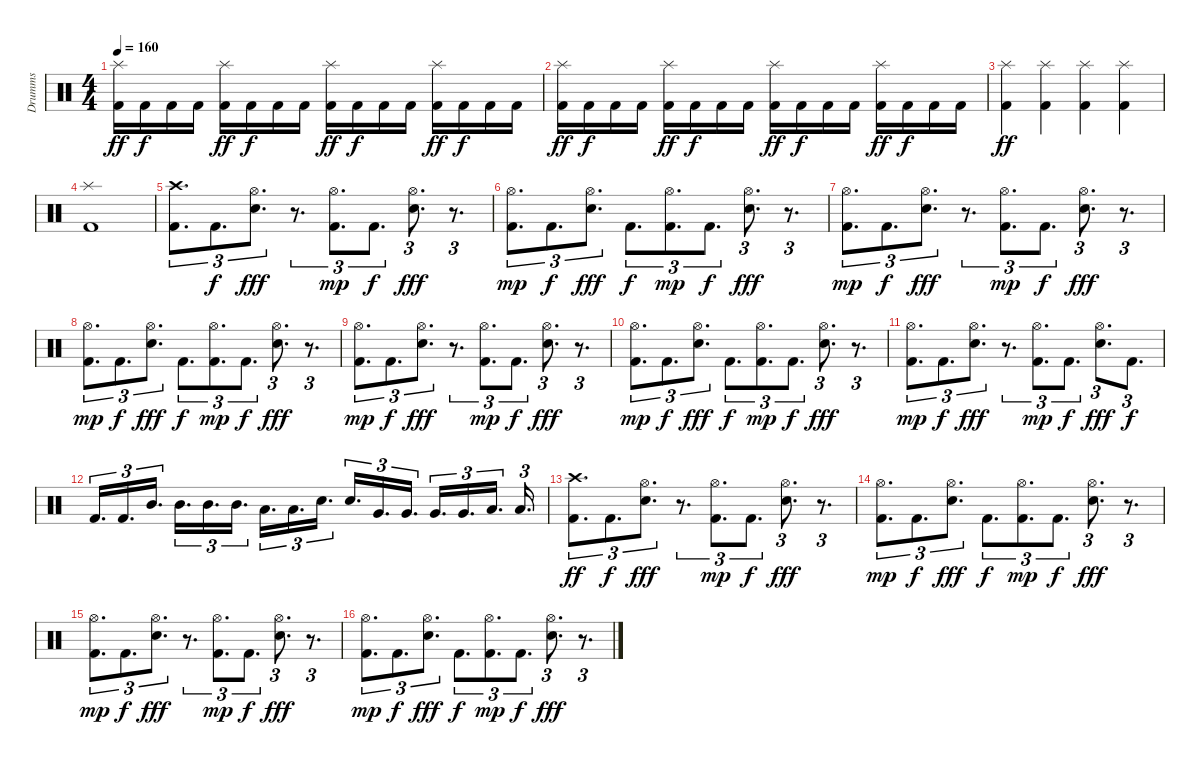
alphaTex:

\track ("Drumms" "Drumms") {instrument percussion}
\staff {score}
\articulation defaults
\ts (4 4)
\section ("" "")
\tempo 160
\clef neutral
\ks c
("Splash (hit)" "Kick (hit) 2").16{dy ff} "Kick (hit) 2".16{dy f} "Kick (hit) 2".16 "Kick (hit) 2".16 ("Splash (hit)" "Kick (hit) 2").16{dy ff} "Kick (hit) 2".16{dy f} "Kick (hit) 2".16 "Kick (hit) 2".16 ("Splash (hit)" "Kick (hit) 2").16{dy ff} "Kick (hit) 2".16{dy f} "Kick (hit) 2".16 "Kick (hit) 2".16 ("Splash (hit)" "Kick (hit) 2").16{dy ff} "Kick (hit) 2".16{dy f} "Kick (hit) 2".16 "Kick (hit) 2".16 |
("Splash (hit)" "Kick (hit) 2").16{dy ff} "Kick (hit) 2".16{dy f} "Kick (hit) 2".16 "Kick (hit) 2".16 ("Splash (hit)" "Kick (hit) 2").16{dy ff} "Kick (hit) 2".16{dy f} "Kick (hit) 2".16 "Kick (hit) 2".16 ("Splash (hit)" "Kick (hit) 2").16{dy ff} "Kick (hit) 2".16{dy f} "Kick (hit) 2".16 "Kick (hit) 2".16 ("Splash (hit)" "Kick (hit) 2").16{dy ff} "Kick (hit) 2".16{dy f} "Kick (hit) 2".16 "Kick (hit) 2".16 |
("Splash (hit)" "Kick (hit) 2").4{dy ff} ("Splash (hit)" "Kick (hit) 2").4 ("Splash (hit)" "Kick (hit) 2").4 ("Splash (hit)" "Kick (hit) 2").4 |
("Splash (hit)" "Kick (hit) 2").1 |
\section ("" "")
("Crash high (hit)" "Kick (hit) 2").8{d tu (3 2)} "Kick (hit) 2".8{d tu (3 2) dy f} ("Hi-Hat (open)" "Electric Snare (hit)").8{d tu (3 2) dy fff} r.8{d tu (3 2)} ("Hi-Hat (open)" "Kick (hit) 2").8{d tu (3 2) dy mp} "Kick (hit) 2".8{d tu (3 2) dy f} ("Hi-Hat (open)" "Electric Snare (hit)").8{d tu (3 2) dy fff} r.8{d tu (3 2)} |
("Hi-Hat (open)" "Kick (hit) 2").8{d tu (3 2) dy mp} "Kick (hit) 2".8{d tu (3 2) dy f} ("Hi-Hat (open)" "Electric Snare (hit)").8{d tu (3 2) dy fff} "Kick (hit) 2".8{d tu (3 2) dy f} ("Hi-Hat (open)" "Kick (hit) 2").8{d tu (3 2) dy mp} "Kick (hit) 2".8{d tu (3 2) dy f} ("Hi-Hat (open)" "Electric Snare (hit)").8{d tu (3 2) dy fff} r.8{d tu (3 2)} |
("Hi-Hat (open)" "Kick (hit) 2").8{d tu (3 2) dy mp} "Kick (hit) 2".8{d tu (3 2) dy f} ("Hi-Hat (open)" "Electric Snare (hit)").8{d tu (3 2) dy fff} r.8{d tu (3 2)} ("Hi-Hat (open)" "Kick (hit) 2").8{d tu (3 2) dy mp} "Kick (hit) 2".8{d tu (3 2) dy f} ("Hi-Hat (open)" "Electric Snare (hit)").8{d tu (3 2) dy fff} r.8{d tu (3 2)} |
("Hi-Hat (open)" "Kick (hit) 2").8{d tu (3 2) dy mp} "Kick (hit) 2".8{d tu (3 2) dy f} ("Hi-Hat (open)" "Electric Snare (hit)").8{d tu (3 2) dy fff} "Kick (hit) 2".8{d tu (3 2) dy f} ("Hi-Hat (open)" "Kick (hit) 2").8{d tu (3 2) dy mp} "Kick (hit) 2".8{d tu (3 2) dy f} ("Hi-Hat (open)" "Electric Snare (hit)").8{d tu (3 2) dy fff} r.8{d tu (3 2)} |
("Hi-Hat (open)" "Kick (hit) 2").8{d tu (3 2) dy mp} "Kick (hit) 2".8{d tu (3 2) dy f} ("Hi-Hat (open)" "Electric Snare (hit)").8{d tu (3 2) dy fff} r.8{d tu (3 2)} ("Hi-Hat (open)" "Kick (hit) 2").8{d tu (3 2) dy mp} "Kick (hit) 2".8{d tu (3 2) dy f} ("Hi-Hat (open)" "Electric Snare (hit)").8{d tu (3 2) dy fff} r.8{d tu (3 2)} |
("Hi-Hat (open)" "Kick (hit) 2").8{d tu (3 2) dy mp} "Kick (hit) 2".8{d tu (3 2) dy f} ("Hi-Hat (open)" "Electric Snare (hit)").8{d tu (3 2) dy fff} "Kick (hit) 2".8{d tu (3 2) dy f} ("Hi-Hat (open)" "Kick (hit) 2").8{d tu (3 2) dy mp} "Kick (hit) 2".8{d tu (3 2) dy f} ("Hi-Hat (open)" "Electric Snare (hit)").8{d tu (3 2) dy fff} r.8{d tu (3 2)} |
("Hi-Hat (open)" "Kick (hit) 2").8{d tu (3 2) dy mp} "Kick (hit) 2".8{d tu (3 2) dy f} ("Hi-Hat (open)" "Electric Snare (hit)").8{d tu (3 2) dy fff} r.8{d tu (3 2)} ("Hi-Hat (open)" "Kick (hit) 2").8{d tu (3 2) dy mp} "Kick (hit) 2".8{d tu (3 2) dy f} ("Hi-Hat (open)" "Electric Snare (hit)").8{d tu (3 2) dy fff} "Kick (hit) 2".8{d tu (3 2) dy f} |
"Kick (hit) 2".16{d tu (3 2)} "Kick (hit) 2".16{d tu (3 2)} "Mid Tom (hit)".16{d tu (3 2)} "Mid Tom (hit)".16{d tu (3 2)} "Mid Tom (hit)".16{d tu (3 2)} "Mid Tom (hit)".16{d tu (3 2)} "Low Tom (hit)".16{d tu (3 2)} "Low Tom (hit)".16{d tu (3 2)} "Electric Snare (hit)".16{d tu (3 2)} "Electric Snare (hit)".16{d tu (3 2)} "Very Low Tom (hit)".16{d tu (3 2)} "Very Low Tom (hit)".16{d tu (3 2)} "Very Low Tom (hit)".16{d tu (3 2)} "Very Low Tom (hit)".16{d tu (3 2)} "Low Floor Tom (hit)".16{d tu (3 2)} "Low Floor Tom (hit)".16{d tu (3 2)} |
("Crash high (hit)" "Kick (hit) 2").8{d tu (3 2) dy ff} "Kick (hit) 2".8{d tu (3 2) dy f} ("Hi-Hat (open)" "Electric Snare (hit)").8{d tu (3 2) dy fff} r.8{d tu (3 2)} ("Hi-Hat (open)" "Kick (hit) 2").8{d tu (3 2) dy mp} "Kick (hit) 2".8{d tu (3 2) dy f} ("Hi-Hat (open)" "Electric Snare (hit)").8{d tu (3 2) dy fff} r.8{d tu (3 2)} |
("Hi-Hat (open)" "Kick (hit) 2").8{d tu (3 2) dy mp} "Kick (hit) 2".8{d tu (3 2) dy f} ("Hi-Hat (open)" "Electric Snare (hit)").8{d tu (3 2) dy fff} "Kick (hit) 2".8{d tu (3 2) dy f} ("Hi-Hat (open)" "Kick (hit) 2").8{d tu (3 2) dy mp} "Kick (hit) 2".8{d tu (3 2) dy f} ("Hi-Hat (open)" "Electric Snare (hit)").8{d tu (3 2) dy fff} r.8{d tu (3 2)} |
("Hi-Hat (open)" "Kick (hit) 2").8{d tu (3 2) dy mp} "Kick (hit) 2".8{d tu (3 2) dy f} ("Hi-Hat (open)" "Electric Snare (hit)").8{d tu (3 2) dy fff} r.8{d tu (3 2)} ("Hi-Hat (open)" "Kick (hit) 2").8{d tu (3 2) dy mp} "Kick (hit) 2".8{d tu (3 2) dy f} ("Hi-Hat (open)" "Electric Snare (hit)").8{d tu (3 2) dy fff} r.8{d tu (3 2)} |
("Hi-Hat (open)" "Kick (hit) 2").8{d tu (3 2) dy mp} "Kick (hit) 2".8{d tu (3 2) dy f} ("Hi-Hat (open)" "Electric Snare (hit)").8{d tu (3 2) dy fff} "Kick (hit) 2".8{d tu (3 2) dy f} ("Hi-Hat (open)" "Kick (hit) 2").8{d tu (3 2) dy mp} "Kick (hit) 2".8{d tu (3 2) dy f} ("Hi-Hat (open)" "Electric Snare (hit)").8{d tu (3 2) dy fff} r.8{d tu (3 2)}
